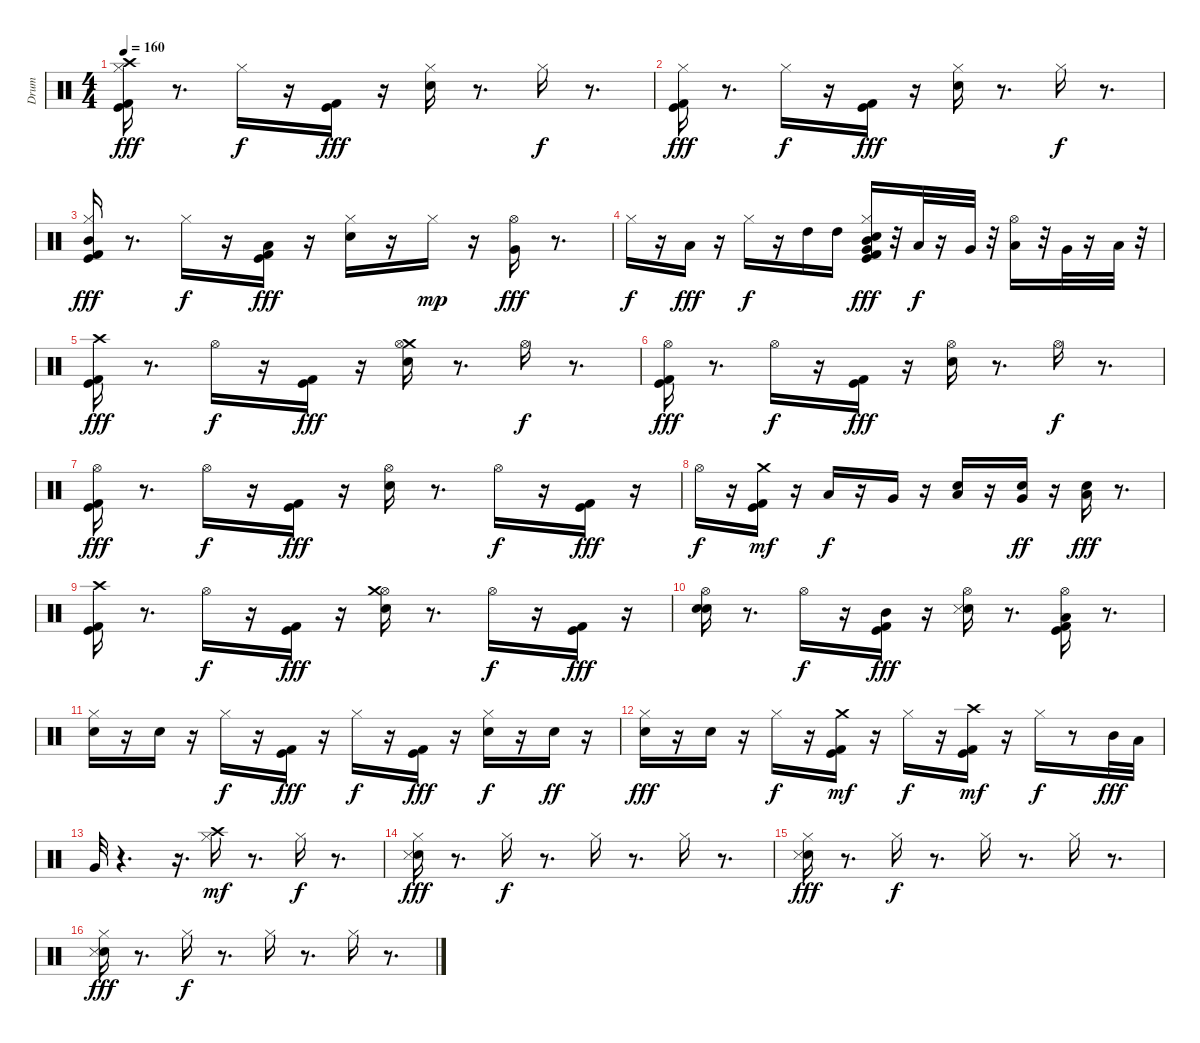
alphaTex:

\track ("Drum" "Drum") {instrument percussion}
\staff {score}
\articulation defaults
\ts (4 4)
\tempo 160
\clef neutral
\ks c
("Crash high (hit)" "Kick (hit)" "Kick (hit) 2" "Hi-Hat (closed)").16{dy fff} r.8{d} "Hi-Hat (closed)".16{dy f} r.16 ("Kick (hit)" "Kick (hit) 2").16{dy fff} r.16 ("Hi-Hat (closed)" "Electric Snare (hit)").16 r.8{d} "Hi-Hat (closed)".16{dy f} r.8{d} |
("Kick (hit)" "Kick (hit) 2" "Hi-Hat (closed)").16{dy fff} r.8{d} "Hi-Hat (closed)".16{dy f} r.16 ("Kick (hit)" "Kick (hit) 2").16{dy fff} r.16 ("Hi-Hat (closed)" "Electric Snare (hit)").16 r.8{d} "Hi-Hat (closed)".16{dy f} r.8{d} |
("Kick (hit)" "Kick (hit) 2" "Hi-Hat (closed)" "Mid Tom (hit)").16{dy fff} r.8{d} "Hi-Hat (closed)".16{dy f} r.16 ("Kick (hit)" "Kick (hit) 2" "Low Tom (hit)").16{dy fff} r.16 ("Hi-Hat (closed)" "Electric Snare (hit)").16 r.16 "Hi-Hat (closed)".16{dy mp} r.16 ("Hi-Hat (open)" "Very Low Tom (hit)").16{dy fff} r.8{d} |
"Hi-Hat (closed)".16{dy f} r.16 "Low Tom (hit)".16{dy fff} r.16 "Hi-Hat (closed)".16{dy f} r.16 "High Tom (hit)".16 "High Tom (hit)".16 ("Hi-Hat (closed)" "Electric Snare (hit)" "Kick (hit)" "Kick (hit) 2" "Very Low Tom (hit)" "Mid Tom (hit)").16{dy fff} r.32 "Low Tom (hit)".32{dy f} r.16 "Very Low Tom (hit)".32 r.32 ("Hi-Hat (open)" "Low Tom (hit)").16 r.32 "Very Low Tom (hit)".32 r.16 "Low Floor Tom (hit)".32 r.32 |
("Crash high (hit)" "Kick (hit)" "Kick (hit) 2").16{dy fff} r.8{d} "Hi-Hat (open)".16{dy f} r.16 ("Kick (hit)" "Kick (hit) 2").16{dy fff} r.16 ("Crash medium (hit)" "Hi-Hat (open)" "Electric Snare (hit)").16 r.8{d} "Hi-Hat (open)".16{dy f} r.8{d} |
("Kick (hit) 2" "Kick (hit)" "Hi-Hat (open)").16{dy fff} r.8{d} "Hi-Hat (open)".16{dy f} r.16 ("Kick (hit) 2" "Kick (hit)").16{dy fff} r.16 ("Hi-Hat (open)" "Electric Snare (hit)").16 r.8{d} "Hi-Hat (open)".16{dy f} r.8{d} |
("Kick (hit)" "Kick (hit) 2" "Hi-Hat (open)").16{dy fff} r.8{d} "Hi-Hat (open)".16{dy f} r.16 ("Kick (hit)" "Kick (hit) 2").16{dy fff} r.16 ("Hi-Hat (open)" "Electric Snare (hit)").16 r.8{d} "Hi-Hat (open)".16{dy f} r.16 ("Kick (hit)" "Kick (hit) 2").16{dy fff} r.16 |
"Hi-Hat (open)".16{dy f} r.16 ("Kick (hit)" "Kick (hit) 2" "Crash medium (hit)").16{dy mf} r.16 "Low Tom (hit)".16{dy f} r.16 "Very Low Tom (hit)".16 r.16 ("Electric Snare (hit)" "Low Tom (hit)").16 r.16 ("Electric Snare (hit)" "Very Low Tom (hit)").16{dy ff} r.16 ("Electric Snare (hit)" "Low Floor Tom (hit)").16{dy fff} r.8{d} |
("Kick (hit)" "Kick (hit) 2" "Crash high (hit)").16 r.8{d} "Hi-Hat (open)".16{dy f} r.16 ("Kick (hit)" "Kick (hit) 2").16{dy fff} r.16 ("Hi-Hat (open)" "Crash medium (hit)" "Electric Snare (hit)").16 r.8{d} "Hi-Hat (open)".16{dy f} r.16 ("Kick (hit)" "Kick (hit) 2").16{dy fff} r.16 |
("Hi-Hat (open)" "Electric Snare (hit)" "Electric Snare (hit)").16 r.8{d} "Hi-Hat (open)".16{dy f} r.16 ("Kick (hit)" "Kick (hit) 2" "Mid Tom (hit)").16{dy fff} r.16 ("Hi-Hat (open)" "Electric Snare (hit)" "Snare (side stick) 3").16 r.8{d} ("Kick (hit) 2" "Kick (hit)" "Hi-Hat (open)" "Low Tom (hit)").16 r.8{d} |
("Hi-Hat (closed)" "Electric Snare (hit)").16 r.16 "Electric Snare (hit)".16 r.16 "Hi-Hat (closed)".16{dy f} r.16 ("Kick (hit)" "Kick (hit) 2").16{dy fff} r.16 "Hi-Hat (closed)".16{dy f} r.16 ("Kick (hit)" "Kick (hit) 2").16{dy fff} r.16 ("Hi-Hat (closed)" "Electric Snare (hit)").16{dy f} r.16 "Electric Snare (hit)".16{dy ff} r.16 |
("Hi-Hat (closed)" "Electric Snare (hit)").16{dy fff} r.16 "Electric Snare (hit)".16 r.16 "Hi-Hat (closed)".16{dy f} r.16 ("Kick (hit)" "Kick (hit) 2" "Crash medium (hit)").16{dy mf} r.16 "Hi-Hat (closed)".16{dy f} r.16 ("Kick (hit)" "Kick (hit) 2" "Crash high (hit)").16{dy mf} r.16 "Hi-Hat (closed)".16{dy f} r.8 "Mid Tom (hit)".32{dy fff} "Low Tom (hit)".32 |
"Very Low Tom (hit)".32 r.4{d} r.16{d} ("Hi-Hat (closed)" "Crash high (hit)").16{dy mf} r.8{d} "Hi-Hat (closed)".16{dy f} r.8{d} |
("Hi-Hat (closed)" "Hand Clap (hit)" "Snare (side stick) 3").16{dy fff} r.8{d} "Hi-Hat (closed)".16{dy f} r.8{d} "Hi-Hat (closed)".16 r.8{d} "Hi-Hat (closed)".16 r.8{d} |
("Hi-Hat (closed)" "Hand Clap (hit)" "Snare (side stick) 3").16{dy fff} r.8{d} "Hi-Hat (closed)".16{dy f} r.8{d} "Hi-Hat (closed)".16 r.8{d} "Hi-Hat (closed)".16 r.8{d} |
("Hi-Hat (closed)" "Hand Clap (hit)" "Snare (side stick) 3").16{dy fff} r.8{d} "Hi-Hat (closed)".16{dy f} r.8{d} "Hi-Hat (closed)".16 r.8{d} "Hi-Hat (closed)".16 r.8{d}
